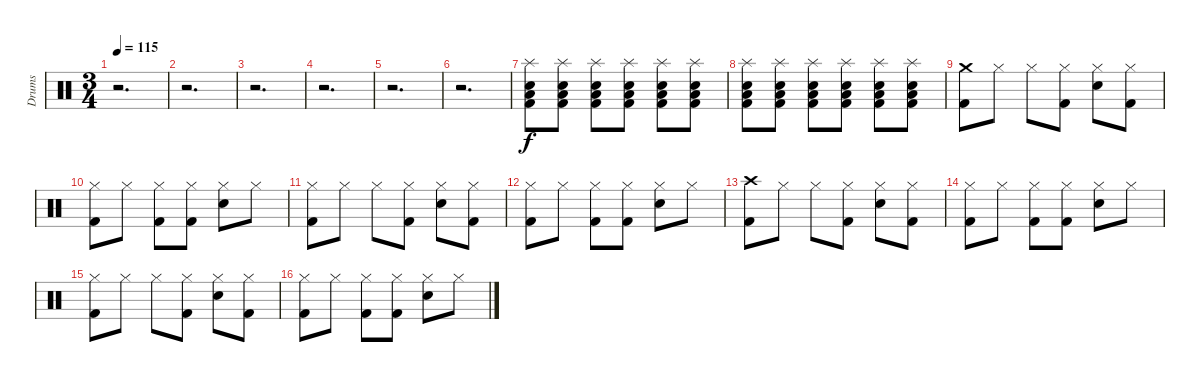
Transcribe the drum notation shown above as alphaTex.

\track ("Drums" "Drums") {instrument percussion}
\staff {score}
\articulation defaults
\ts (3 4)
\tempo 115
\clef neutral
\ks c
r.2{d dy f} |
r.2{d} |
r.2{d} |
r.2{d} |
r.2{d} |
r.2{d} |
("Kick (hit) 2" "Low Tom (hit)" "Snare (hit) 2" "Splash (hit)").8{volume 4} ("Kick (hit) 2" "Low Tom (hit)" "Snare (hit) 2" "Splash (hit)").8{volume 13} ("Kick (hit) 2" "Low Tom (hit)" "Snare (hit) 2" "Splash (hit)").8 ("Kick (hit) 2" "Low Tom (hit)" "Snare (hit) 2" "Splash (hit)").8 ("Kick (hit) 2" "Low Tom (hit)" "Snare (hit) 2" "Splash (hit)").8 ("Kick (hit) 2" "Low Tom (hit)" "Snare (hit) 2" "Splash (hit)").8 |
("Kick (hit) 2" "Low Tom (hit)" "Snare (hit) 2" "Splash (hit)").8 ("Kick (hit) 2" "Low Tom (hit)" "Snare (hit) 2" "Splash (hit)").8 ("Kick (hit) 2" "Low Tom (hit)" "Snare (hit) 2" "Splash (hit)").8 ("Kick (hit) 2" "Low Tom (hit)" "Snare (hit) 2" "Splash (hit)").8 ("Kick (hit) 2" "Low Tom (hit)" "Snare (hit) 2" "Splash (hit)").8 ("Kick (hit) 2" "Low Tom (hit)" "Snare (hit) 2" "Splash (hit)").8 |
("Kick (hit) 2" "Crash medium (hit)").8 "Hi-Hat (closed)".8 "Hi-Hat (closed)".8 ("Kick (hit) 2" "Hi-Hat (closed)").8 ("Hi-Hat (closed)" "Snare (hit) 2").8 ("Kick (hit) 2" "Hi-Hat (closed)").8 |
("Kick (hit) 2" "Hi-Hat (closed)").8 "Hi-Hat (closed)".8 ("Kick (hit) 2" "Hi-Hat (closed)").8 ("Kick (hit) 2" "Hi-Hat (closed)").8 ("Hi-Hat (closed)" "Snare (hit) 2").8 "Hi-Hat (closed)".8 |
("Kick (hit) 2" "Hi-Hat (closed)").8 "Hi-Hat (closed)".8 "Hi-Hat (closed)".8 ("Kick (hit) 2" "Hi-Hat (closed)").8 ("Hi-Hat (closed)" "Snare (hit) 2").8 ("Kick (hit) 2" "Hi-Hat (closed)").8 |
("Kick (hit) 2" "Hi-Hat (closed)").8 "Hi-Hat (closed)".8 ("Kick (hit) 2" "Hi-Hat (closed)").8 ("Kick (hit) 2" "Hi-Hat (closed)").8 ("Hi-Hat (closed)" "Snare (hit) 2").8 "Hi-Hat (closed)".8 |
("Kick (hit) 2" "Crash high (hit)").8 "Hi-Hat (closed)".8 "Hi-Hat (closed)".8 ("Kick (hit) 2" "Hi-Hat (closed)").8 ("Hi-Hat (closed)" "Snare (hit) 2").8 ("Kick (hit) 2" "Hi-Hat (closed)").8 |
("Kick (hit) 2" "Hi-Hat (closed)").8 "Hi-Hat (closed)".8 ("Kick (hit) 2" "Hi-Hat (closed)").8 ("Kick (hit) 2" "Hi-Hat (closed)").8 ("Hi-Hat (closed)" "Snare (hit) 2").8 "Hi-Hat (closed)".8 |
("Kick (hit) 2" "Hi-Hat (closed)").8 "Hi-Hat (closed)".8 "Hi-Hat (closed)".8 ("Kick (hit) 2" "Hi-Hat (closed)").8 ("Hi-Hat (closed)" "Snare (hit) 2").8 ("Kick (hit) 2" "Hi-Hat (closed)").8 |
("Kick (hit) 2" "Hi-Hat (closed)").8 "Hi-Hat (closed)".8 ("Kick (hit) 2" "Hi-Hat (closed)").8 ("Kick (hit) 2" "Hi-Hat (closed)").8 ("Hi-Hat (closed)" "Snare (hit) 2").8 "Hi-Hat (closed)".8
